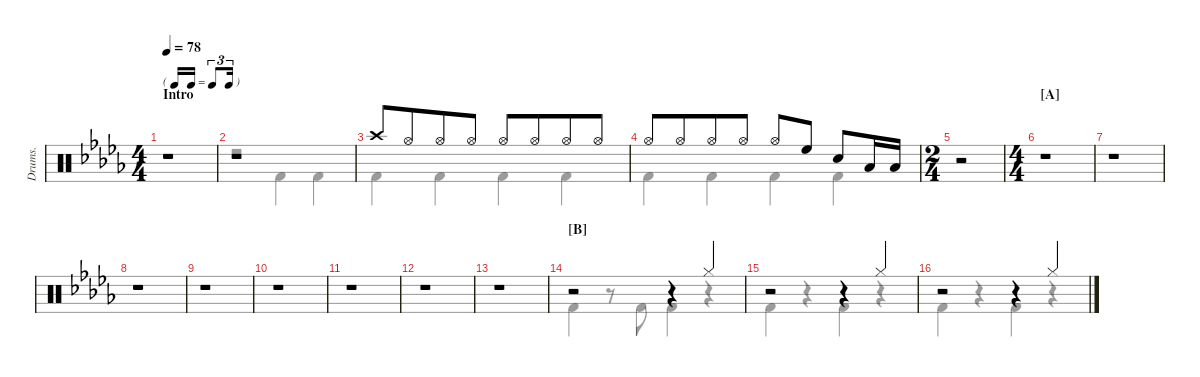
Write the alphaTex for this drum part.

\defaultSystemsLayout 4
\hideDynamics
\otherSystemsTrackNameOrientation horizontal
\track ("Drumkit" "Drums.") {defaultSystemsLayout 4 instrument percussion}
\staff {score}
\articulation defaults
\voice
\ts (4 4)
\tf triplet16th
\section ("" "Intro")
\tempo 78
\clef neutral
\ks db
r.1{dy mf beam Down} |
r.1{beam Up} |
"Crash high (hit)"{acc forcenatural}.8{beam Up} "Hi-Hat (open)"{acc forcenatural}.8{beam Up beam merge} "Hi-Hat (open)"{acc forcenatural}.8{beam Up beam merge} "Hi-Hat (open)"{acc forcenatural}.8{beam Up} "Hi-Hat (open)"{acc forcenatural}.8{beam Up beam merge} "Hi-Hat (open)"{acc forcenatural}.8{beam Up beam merge} "Hi-Hat (open)"{acc forcenatural}.8{beam Up} "Hi-Hat (open)"{acc forcenatural}.8{beam Up beam merge} |
"Hi-Hat (open)"{acc forcenatural}.8{beam Up beam merge} "Hi-Hat (open)"{acc forcenatural}.8{beam Up beam merge} "Hi-Hat (open)"{acc forcenatural}.8{beam Up} "Hi-Hat (open)"{acc forcenatural}.8{beam Up} "Hi-Hat (open)"{acc forcenatural}.8{beam Up beam merge} "High Floor Tom (hit)"{acc forcenatural}.8{beam Up} "Snare (hit) 2"{acc forcenatural}.8{beam Up} "Low Tom (hit)"{acc forcenatural}.16{beam Up} "Low Tom (hit)"{acc forcenatural}.16{beam Up} |
\ts (2 4)
\beaming (8 2 2)
r.2{beam Down} |
\ts (4 4)
\section ("A" "")
r.1{beam Down} |
r.1{beam Down} |
r.1{beam Down} |
r.1{beam Down} |
r.1{beam Down} |
r.1{beam Down} |
r.1{beam Down} |
r.1{beam Down} |
\section ("B" "")
r.2{beam Up} r.4{beam Up} "Hi-Hat (closed)"{acc forcenatural}.4{beam Up} |
r.2{beam Up} r.4{beam Up} "Hi-Hat (closed)"{acc forcenatural}.4{beam Up} |
r.2{beam Up} r.4{beam Up} "Hi-Hat (closed)"{acc forcenatural}.4{beam Up}
\voice
\clef neutral
\ottava regular
\simile none
\ks db
|
r.2{beam Down} "Kick (hit) 2"{acc forcenatural}.4{beam Down} "Kick (hit) 2"{acc forcenatural}.4{beam Down} |
"Kick (hit) 2"{acc forcenatural}.4{beam Down} "Kick (hit) 2"{acc forcenatural}.4{beam Down} "Kick (hit) 2"{acc forcenatural}.4{beam Down} "Kick (hit) 2"{acc forcenatural}.4{beam Down} |
"Kick (hit) 2"{acc forcenatural}.4{beam Down} "Kick (hit) 2"{acc forcenatural}.4{beam Down} "Kick (hit) 2"{acc forcenatural}.4{beam Down} "Kick (hit) 2"{acc forcenatural}.4{beam Down} |
|
|
|
|
|
|
|
|
|
"Kick (hit) 2"{acc forcenatural}.4{beam Down} r.8{beam Down} "Kick (hit) 2"{acc forcenatural}.8{beam Down} "Kick (hit) 2"{acc forcenatural}.4{beam Down} r.4{beam Down} |
"Kick (hit) 2"{acc forcenatural}.4{beam Down} r.4{beam Down} "Kick (hit) 2"{acc forcenatural}.4{beam Down} r.4{beam Down} |
"Kick (hit) 2"{acc forcenatural}.4{beam Down} r.4{beam Down} "Kick (hit) 2"{acc forcenatural}.4{beam Down} r.4{beam Down}
